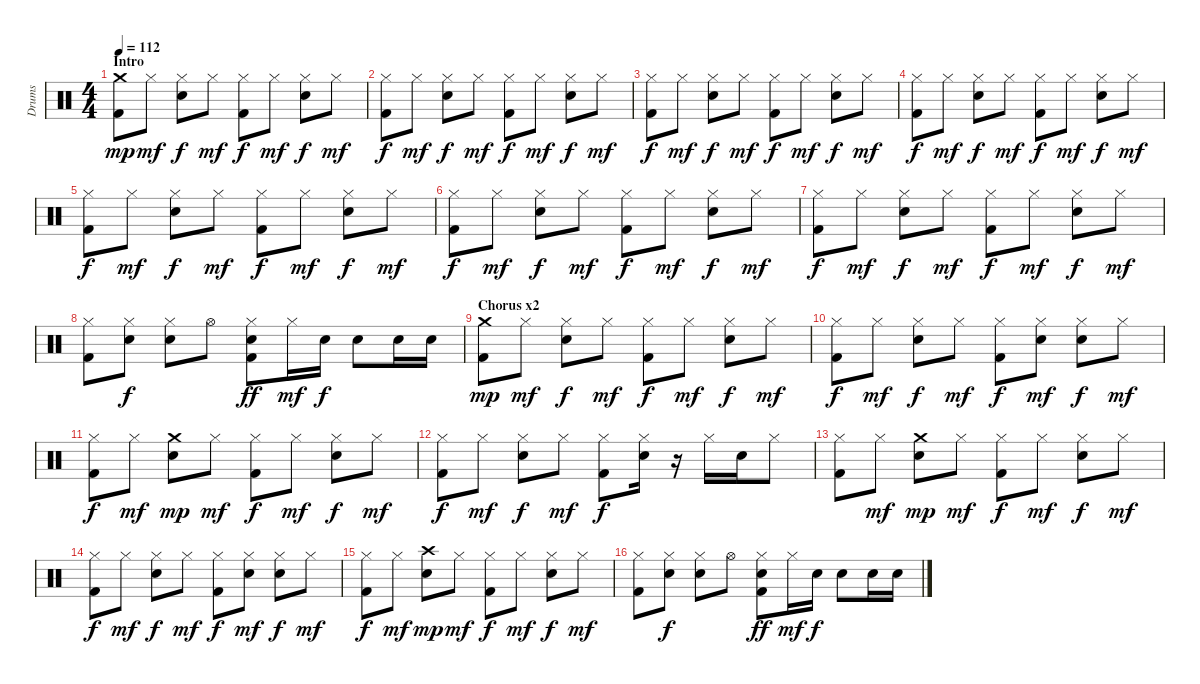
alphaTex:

\track ("Drums" "Drums") {instrument percussion}
\staff {score}
\articulation defaults
\ts (4 4)
\section ("" "Intro")
\tempo 112
\clef neutral
\ks c
("Crash medium (hit)" "Kick (hit) 2").8{dy mp} "Hi-Hat (closed)".8{dy mf} ("Hi-Hat (closed)" "Snare (hit) 2").8{dy f} "Hi-Hat (closed)".8{dy mf} ("Hi-Hat (closed)" "Kick (hit) 2").8{dy f} "Hi-Hat (closed)".8{dy mf} ("Hi-Hat (closed)" "Snare (hit) 2").8{dy f} "Hi-Hat (closed)".8{dy mf} |
("Hi-Hat (closed)" "Kick (hit) 2").8{dy f} "Hi-Hat (closed)".8{dy mf} ("Hi-Hat (closed)" "Snare (hit) 2").8{dy f} "Hi-Hat (closed)".8{dy mf} ("Hi-Hat (closed)" "Kick (hit) 2").8{dy f} "Hi-Hat (closed)".8{dy mf} ("Hi-Hat (closed)" "Snare (hit) 2").8{dy f} "Hi-Hat (closed)".8{dy mf} |
("Hi-Hat (closed)" "Kick (hit) 2").8{dy f} "Hi-Hat (closed)".8{dy mf} ("Hi-Hat (closed)" "Snare (hit) 2").8{dy f} "Hi-Hat (closed)".8{dy mf} ("Hi-Hat (closed)" "Kick (hit) 2").8{dy f} "Hi-Hat (closed)".8{dy mf} ("Hi-Hat (closed)" "Snare (hit) 2").8{dy f} "Hi-Hat (closed)".8{dy mf} |
("Hi-Hat (closed)" "Kick (hit) 2").8{dy f} "Hi-Hat (closed)".8{dy mf} ("Hi-Hat (closed)" "Snare (hit) 2").8{dy f} "Hi-Hat (closed)".8{dy mf} ("Hi-Hat (closed)" "Kick (hit) 2").8{dy f} "Hi-Hat (closed)".8{dy mf} ("Hi-Hat (closed)" "Snare (hit) 2").8{dy f} "Hi-Hat (closed)".8{dy mf} |
("Hi-Hat (closed)" "Kick (hit) 2").8{dy f} "Hi-Hat (closed)".8{dy mf} ("Hi-Hat (closed)" "Snare (hit) 2").8{dy f} "Hi-Hat (closed)".8{dy mf} ("Hi-Hat (closed)" "Kick (hit) 2").8{dy f} "Hi-Hat (closed)".8{dy mf} ("Hi-Hat (closed)" "Snare (hit) 2").8{dy f} "Hi-Hat (closed)".8{dy mf} |
("Hi-Hat (closed)" "Kick (hit) 2").8{dy f} "Hi-Hat (closed)".8{dy mf} ("Hi-Hat (closed)" "Snare (hit) 2").8{dy f} "Hi-Hat (closed)".8{dy mf} ("Hi-Hat (closed)" "Kick (hit) 2").8{dy f} "Hi-Hat (closed)".8{dy mf} ("Hi-Hat (closed)" "Snare (hit) 2").8{dy f} "Hi-Hat (closed)".8{dy mf} |
("Hi-Hat (closed)" "Kick (hit) 2").8{dy f} "Hi-Hat (closed)".8{dy mf} ("Hi-Hat (closed)" "Snare (hit) 2").8{dy f} "Hi-Hat (closed)".8{dy mf} ("Hi-Hat (closed)" "Kick (hit) 2").8{dy f} "Hi-Hat (closed)".8{dy mf} ("Hi-Hat (closed)" "Snare (hit) 2").8{dy f} "Hi-Hat (closed)".8{dy mf} |
("Hi-Hat (closed)" "Kick (hit) 2").8 ("Hi-Hat (closed)" "Snare (hit) 2").8{dy f} ("Hi-Hat (closed)" "Snare (hit) 2").8 "Hi-Hat (open)".8 ("Hi-Hat (closed)" "Snare (hit) 2" "Kick (hit) 2").8{dy ff} "Hi-Hat (closed)".16{dy mf} "Snare (hit) 2".16{dy f} "Snare (hit) 2".8 "Snare (hit) 2".16 "Snare (hit) 2".16 |
\section ("" "Chorus x2")
("Crash medium (hit)" "Kick (hit) 2").8{dy mp} "Hi-Hat (closed)".8{dy mf} ("Hi-Hat (closed)" "Snare (hit) 2").8{dy f} "Hi-Hat (closed)".8{dy mf} ("Hi-Hat (closed)" "Kick (hit) 2").8{dy f} "Hi-Hat (closed)".8{dy mf} ("Hi-Hat (closed)" "Snare (hit) 2").8{dy f} "Hi-Hat (closed)".8{dy mf} |
("Hi-Hat (closed)" "Kick (hit) 2").8{dy f} "Hi-Hat (closed)".8{dy mf} ("Hi-Hat (closed)" "Snare (hit) 2").8{dy f} "Hi-Hat (closed)".8{dy mf} ("Hi-Hat (closed)" "Kick (hit) 2").8{dy f} ("Hi-Hat (closed)" "Snare (hit) 2").8{dy mf} ("Hi-Hat (closed)" "Snare (hit) 2").8{dy f} "Hi-Hat (closed)".8{dy mf} |
("Hi-Hat (closed)" "Kick (hit) 2").8{dy f} "Hi-Hat (closed)".8{dy mf} ("Crash medium (hit)" "Snare (hit) 2").8{dy mp} "Hi-Hat (closed)".8{dy mf} ("Hi-Hat (closed)" "Kick (hit) 2").8{dy f} "Hi-Hat (closed)".8{dy mf} ("Hi-Hat (closed)" "Snare (hit) 2").8{dy f} "Hi-Hat (closed)".8{dy mf} |
("Hi-Hat (closed)" "Kick (hit) 2").8{dy f} "Hi-Hat (closed)".8{dy mf} ("Hi-Hat (closed)" "Snare (hit) 2").8{dy f} "Hi-Hat (closed)".8{dy mf} ("Hi-Hat (closed)" "Kick (hit) 2").8{dy f} ("Hi-Hat (closed)" "Snare (hit) 2").16 r.16 "Hi-Hat (closed)".16 "Snare (hit) 2".16 "Hi-Hat (closed)".8 |
("Hi-Hat (closed)" "Kick (hit) 2").8 "Hi-Hat (closed)".8{dy mf} ("Crash medium (hit)" "Snare (hit) 2").8{dy mp} "Hi-Hat (closed)".8{dy mf} ("Hi-Hat (closed)" "Kick (hit) 2").8{dy f} "Hi-Hat (closed)".8{dy mf} ("Hi-Hat (closed)" "Snare (hit) 2").8{dy f} "Hi-Hat (closed)".8{dy mf} |
("Hi-Hat (closed)" "Kick (hit) 2").8{dy f} "Hi-Hat (closed)".8{dy mf} ("Hi-Hat (closed)" "Snare (hit) 2").8{dy f} "Hi-Hat (closed)".8{dy mf} ("Hi-Hat (closed)" "Kick (hit) 2").8{dy f} ("Hi-Hat (closed)" "Snare (hit) 2").8{dy mf} ("Hi-Hat (closed)" "Snare (hit) 2").8{dy f} "Hi-Hat (closed)".8{dy mf} |
("Hi-Hat (closed)" "Kick (hit) 2").8{dy f} "Hi-Hat (closed)".8{dy mf} ("Crash high (hit)" "Snare (hit) 2").8{dy mp} "Hi-Hat (closed)".8{dy mf} ("Hi-Hat (closed)" "Kick (hit) 2").8{dy f} "Hi-Hat (closed)".8{dy mf} ("Hi-Hat (closed)" "Snare (hit) 2").8{dy f} "Hi-Hat (closed)".8{dy mf} |
("Hi-Hat (closed)" "Kick (hit) 2").8 ("Hi-Hat (closed)" "Snare (hit) 2").8{dy f} ("Hi-Hat (closed)" "Snare (hit) 2").8 "Hi-Hat (open)".8 ("Hi-Hat (closed)" "Snare (hit) 2" "Kick (hit) 2").8{dy ff} "Hi-Hat (closed)".16{dy mf} "Snare (hit) 2".16{dy f} "Snare (hit) 2".8 "Snare (hit) 2".16 "Snare (hit) 2".16
